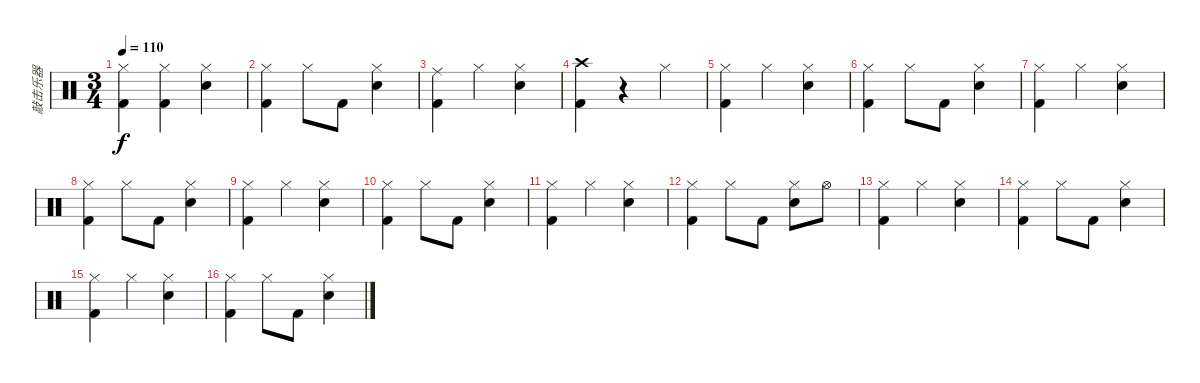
\track ("敲击乐器" "敲击乐器") {instrument percussion}
\staff {score}
\articulation defaults
\ts (3 4)
\tempo 110
\clef neutral
\ks c
("Hi-Hat (closed)" "Kick (hit) 2").4{dy f} ("Hi-Hat (closed)" "Kick (hit) 2").4 ("Hi-Hat (closed)" "Electric Snare (hit)").4 |
("Hi-Hat (closed)" "Kick (hit) 2").4 "Hi-Hat (closed)".8 "Kick (hit) 2".8 ("Hi-Hat (closed)" "Electric Snare (hit)").4 |
("Ride (middle)" "Kick (hit) 2").4 "Hi-Hat (closed)".4 ("Hi-Hat (closed)" "Electric Snare (hit)").4 |
("Crash high (hit)" "Kick (hit) 2").4 r.4 "Hi-Hat (closed)".4 |
("Hi-Hat (closed)" "Kick (hit) 2").4 "Hi-Hat (closed)".4 ("Hi-Hat (closed)" "Electric Snare (hit)").4 |
("Hi-Hat (closed)" "Kick (hit) 2").4 "Hi-Hat (closed)".8 "Kick (hit) 2".8 ("Hi-Hat (closed)" "Electric Snare (hit)").4 |
("Hi-Hat (closed)" "Kick (hit) 2").4 "Hi-Hat (closed)".4 ("Hi-Hat (closed)" "Electric Snare (hit)").4 |
("Hi-Hat (closed)" "Kick (hit) 2").4 "Hi-Hat (closed)".8 "Kick (hit) 2".8 ("Hi-Hat (closed)" "Electric Snare (hit)").4 |
("Hi-Hat (closed)" "Kick (hit) 2").4 "Hi-Hat (closed)".4 ("Hi-Hat (closed)" "Electric Snare (hit)").4 |
("Hi-Hat (closed)" "Kick (hit) 2").4 "Hi-Hat (closed)".8 "Kick (hit) 2".8 ("Hi-Hat (closed)" "Electric Snare (hit)").4 |
("Hi-Hat (closed)" "Kick (hit) 2").4 "Hi-Hat (closed)".4 ("Hi-Hat (closed)" "Electric Snare (hit)").4 |
("Hi-Hat (closed)" "Kick (hit) 2").4 "Hi-Hat (closed)".8 "Kick (hit) 2".8 ("Hi-Hat (closed)" "Electric Snare (hit)").8 "Hi-Hat (open)".8 |
("Hi-Hat (closed)" "Kick (hit) 2").4 "Hi-Hat (closed)".4 ("Hi-Hat (closed)" "Electric Snare (hit)").4 |
("Hi-Hat (closed)" "Kick (hit) 2").4 "Hi-Hat (closed)".8 "Kick (hit) 2".8 ("Hi-Hat (closed)" "Electric Snare (hit)").4 |
("Hi-Hat (closed)" "Kick (hit) 2").4 "Hi-Hat (closed)".4 ("Hi-Hat (closed)" "Electric Snare (hit)").4 |
("Hi-Hat (closed)" "Kick (hit) 2").4 "Hi-Hat (closed)".8 "Kick (hit) 2".8 ("Hi-Hat (closed)" "Electric Snare (hit)").4
